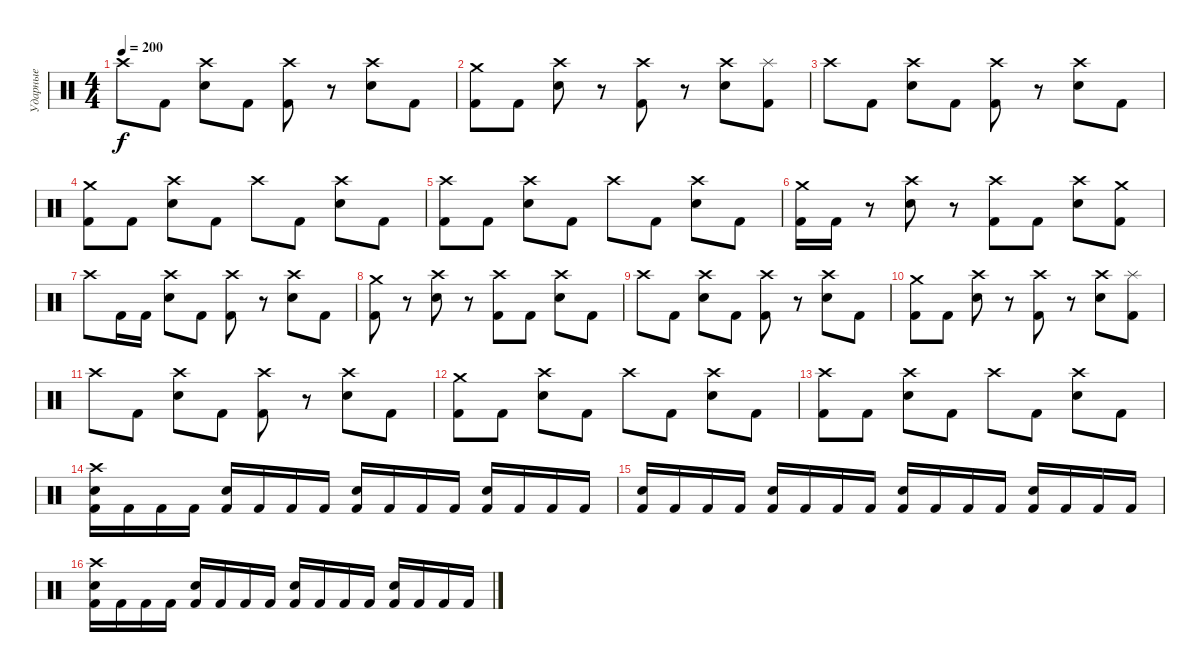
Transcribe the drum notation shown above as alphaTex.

\track ("Ударные" "Ударные") {instrument percussion}
\staff {score}
\articulation defaults
\ts (4 4)
\tempo 200
\clef neutral
\ks c "Crash high (hit)".8{dy f} "Kick (hit) 2".8
("Crash high (hit)" "Snare (hit) 2").8 "Kick (hit) 2".8 ("Crash high (hit)" "Kick (hit) 2").8 r.8 ("Crash high (hit)" "Snare (hit) 2").8 "Kick (hit) 2".8 |
("Crash medium (hit)" "Kick (hit) 2").8 "Kick (hit) 2".8 ("Crash high (hit)" "Snare (hit) 2").8 r.8 ("Crash high (hit)" "Kick (hit) 2").8 r.8 ("Crash high (hit)" "Snare (hit) 2").8 ("Splash (hit)" "Kick (hit) 2").8 |
"Crash high (hit)".8 "Kick (hit) 2".8 ("Crash high (hit)" "Snare (hit) 2").8 "Kick (hit) 2".8 ("Crash high (hit)" "Kick (hit) 2").8 r.8 ("Crash high (hit)" "Snare (hit) 2").8 "Kick (hit) 2".8 |
("Crash medium (hit)" "Kick (hit) 2").8 "Kick (hit) 2".8 ("Crash high (hit)" "Snare (hit) 2").8 "Kick (hit) 2".8 "Crash high (hit)".8 "Kick (hit) 2".8 ("Crash high (hit)" "Snare (hit) 2").8 "Kick (hit) 2".8 |
("Crash high (hit)" "Kick (hit) 2").8 "Kick (hit) 2".8 ("Crash high (hit)" "Snare (hit) 2").8 "Kick (hit) 2".8 "Crash high (hit)".8 "Kick (hit) 2".8 ("Crash high (hit)" "Snare (hit) 2").8 "Kick (hit) 2".8 |
("Crash medium (hit)" "Kick (hit) 2").16 "Kick (hit) 2".16 r.8 ("Crash high (hit)" "Snare (hit) 2").8 r.8 ("Crash high (hit)" "Kick (hit) 2").8 "Kick (hit) 2".8 ("Crash high (hit)" "Snare (hit) 2").8 ("Crash medium (hit)" "Kick (hit) 2").8 |
"Crash high (hit)".8 "Kick (hit) 2".16 "Kick (hit) 2".16 ("Crash high (hit)" "Snare (hit) 2").8 "Kick (hit) 2".8 ("Crash high (hit)" "Kick (hit) 2").8 r.8 ("Crash high (hit)" "Snare (hit) 2").8 "Kick (hit) 2".8 |
("Crash medium (hit)" "Kick (hit) 2").8 r.8 ("Crash high (hit)" "Snare (hit) 2").8 r.8 ("Crash high (hit)" "Kick (hit) 2").8 "Kick (hit) 2".8 ("Crash high (hit)" "Snare (hit) 2").8 "Kick (hit) 2".8 |
"Crash high (hit)".8 "Kick (hit) 2".8 ("Crash high (hit)" "Snare (hit) 2").8 "Kick (hit) 2".8 ("Crash high (hit)" "Kick (hit) 2").8 r.8 ("Crash high (hit)" "Snare (hit) 2").8 "Kick (hit) 2".8 |
("Crash medium (hit)" "Kick (hit) 2").8 "Kick (hit) 2".8 ("Crash high (hit)" "Snare (hit) 2").8 r.8 ("Crash high (hit)" "Kick (hit) 2").8 r.8 ("Crash high (hit)" "Snare (hit) 2").8 ("Splash (hit)" "Kick (hit) 2").8 |
"Crash high (hit)".8 "Kick (hit) 2".8 ("Crash high (hit)" "Snare (hit) 2").8 "Kick (hit) 2".8 ("Crash high (hit)" "Kick (hit) 2").8 r.8 ("Crash high (hit)" "Snare (hit) 2").8 "Kick (hit) 2".8 |
("Crash medium (hit)" "Kick (hit) 2").8 "Kick (hit) 2".8 ("Crash high (hit)" "Snare (hit) 2").8 "Kick (hit) 2".8 "Crash high (hit)".8 "Kick (hit) 2".8 ("Crash high (hit)" "Snare (hit) 2").8 "Kick (hit) 2".8 |
("Crash high (hit)" "Kick (hit) 2").8 "Kick (hit) 2".8 ("Crash high (hit)" "Snare (hit) 2").8 "Kick (hit) 2".8 "Crash high (hit)".8 "Kick (hit) 2".8 ("Crash high (hit)" "Snare (hit) 2").8 "Kick (hit) 2".8 |
("Crash high (hit)" "Snare (hit) 2" "Kick (hit) 2").16 "Kick (hit) 2".16 "Kick (hit) 2".16 "Kick (hit) 2".16 ("Snare (hit) 2" "Kick (hit) 2").16 "Kick (hit) 2".16 "Kick (hit) 2".16 "Kick (hit) 2".16 ("Snare (hit) 2" "Kick (hit) 2").16 "Kick (hit) 2".16 "Kick (hit) 2".16 "Kick (hit) 2".16 ("Snare (hit) 2" "Kick (hit) 2").16 "Kick (hit) 2".16 "Kick (hit) 2".16 "Kick (hit) 2".16 |
("Snare (hit) 2" "Kick (hit) 2").16 "Kick (hit) 2".16 "Kick (hit) 2".16 "Kick (hit) 2".16 ("Snare (hit) 2" "Kick (hit) 2").16 "Kick (hit) 2".16 "Kick (hit) 2".16 "Kick (hit) 2".16 ("Snare (hit) 2" "Kick (hit) 2").16 "Kick (hit) 2".16 "Kick (hit) 2".16 "Kick (hit) 2".16 ("Snare (hit) 2" "Kick (hit) 2").16 "Kick (hit) 2".16 "Kick (hit) 2".16 "Kick (hit) 2".16 |
("Crash high (hit)" "Snare (hit) 2" "Kick (hit) 2").16 "Kick (hit) 2".16 "Kick (hit) 2".16 "Kick (hit) 2".16 ("Snare (hit) 2" "Kick (hit) 2").16 "Kick (hit) 2".16 "Kick (hit) 2".16 "Kick (hit) 2".16 ("Snare (hit) 2" "Kick (hit) 2").16 "Kick (hit) 2".16 "Kick (hit) 2".16 "Kick (hit) 2".16 ("Snare (hit) 2" "Kick (hit) 2").16 "Kick (hit) 2".16 "Kick (hit) 2".16 "Kick (hit) 2".16
